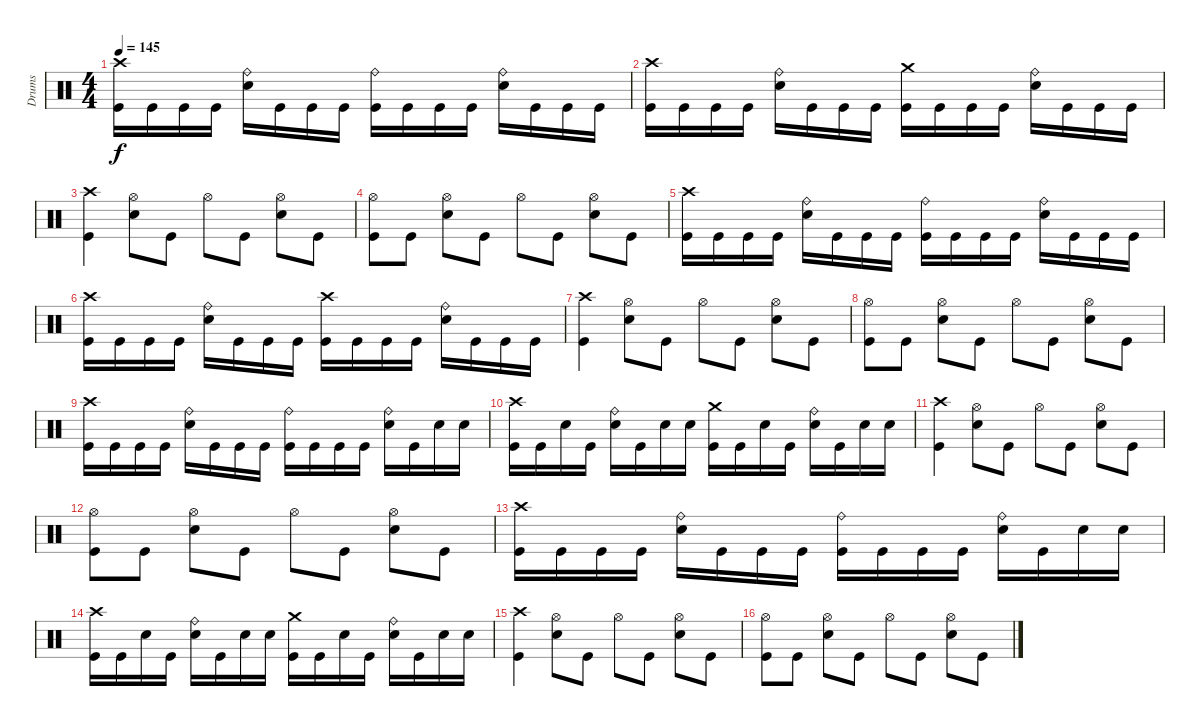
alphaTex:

\track ("Drums" "Drums") {instrument percussion}
\staff {score}
\articulation defaults
\ts (4 4)
\tempo 145
\clef neutral
\ks c
("Crash high (hit)" "Kick (hit)").16{dy f} "Kick (hit)".16 "Kick (hit)".16 "Kick (hit)".16 ("Ride (bell)" "Electric Snare (hit)").16 "Kick (hit)".16 "Kick (hit)".16 "Kick (hit)".16 ("Ride (bell)" "Kick (hit)").16 "Kick (hit)".16 "Kick (hit)".16 "Kick (hit)".16 ("Ride (bell)" "Electric Snare (hit)").16 "Kick (hit)".16 "Kick (hit)".16 "Kick (hit)".16 |
("Crash high (hit)" "Kick (hit)").16 "Kick (hit)".16 "Kick (hit)".16 "Kick (hit)".16 ("Ride (bell)" "Electric Snare (hit)").16 "Kick (hit)".16 "Kick (hit)".16 "Kick (hit)".16 ("Crash medium (hit)" "Kick (hit)").16 "Kick (hit)".16 "Kick (hit)".16 "Kick (hit)".16 ("Ride (bell)" "Electric Snare (hit)").16 "Kick (hit)".16 "Kick (hit)".16 "Kick (hit)".16 |
("Crash high (hit)" "Kick (hit)").4 ("Hi-Hat (open)" "Electric Snare (hit)").8 "Kick (hit)".8 "Hi-Hat (open)".8 "Kick (hit)".8 ("Hi-Hat (open)" "Electric Snare (hit)").8 "Kick (hit)".8 |
("Hi-Hat (open)" "Kick (hit)").8 "Kick (hit)".8 ("Hi-Hat (open)" "Electric Snare (hit)").8 "Kick (hit)".8 "Hi-Hat (open)".8 "Kick (hit)".8 ("Hi-Hat (open)" "Electric Snare (hit)").8 "Kick (hit)".8 |
("Crash high (hit)" "Kick (hit)").16 "Kick (hit)".16 "Kick (hit)".16 "Kick (hit)".16 ("Ride (bell)" "Electric Snare (hit)").16 "Kick (hit)".16 "Kick (hit)".16 "Kick (hit)".16 ("Ride (bell)" "Kick (hit)").16 "Kick (hit)".16 "Kick (hit)".16 "Kick (hit)".16 ("Ride (bell)" "Electric Snare (hit)").16 "Kick (hit)".16 "Kick (hit)".16 "Kick (hit)".16 |
("Crash high (hit)" "Kick (hit)").16 "Kick (hit)".16 "Kick (hit)".16 "Kick (hit)".16 ("Ride (bell)" "Electric Snare (hit)").16 "Kick (hit)".16 "Kick (hit)".16 "Kick (hit)".16 ("Crash high (hit)" "Kick (hit)").16 "Kick (hit)".16 "Kick (hit)".16 "Kick (hit)".16 ("Ride (bell)" "Electric Snare (hit)").16 "Kick (hit)".16 "Kick (hit)".16 "Kick (hit)".16 |
("Crash high (hit)" "Kick (hit)").4 ("Hi-Hat (open)" "Electric Snare (hit)").8 "Kick (hit)".8 "Hi-Hat (open)".8 "Kick (hit)".8 ("Hi-Hat (open)" "Electric Snare (hit)").8 "Kick (hit)".8 |
("Hi-Hat (open)" "Kick (hit)").8 "Kick (hit)".8 ("Hi-Hat (open)" "Electric Snare (hit)").8 "Kick (hit)".8 "Hi-Hat (open)".8 "Kick (hit)".8 ("Hi-Hat (open)" "Electric Snare (hit)").8 "Kick (hit)".8 |
("Crash high (hit)" "Kick (hit)").16 "Kick (hit)".16 "Kick (hit)".16 "Kick (hit)".16 ("Ride (bell)" "Electric Snare (hit)").16 "Kick (hit)".16 "Kick (hit)".16 "Kick (hit)".16 ("Ride (bell)" "Kick (hit)").16 "Kick (hit)".16 "Kick (hit)".16 "Kick (hit)".16 ("Ride (bell)" "Electric Snare (hit)").16 "Kick (hit)".16 "Electric Snare (hit)".16 "Electric Snare (hit)".16 |
("Crash high (hit)" "Kick (hit)").16 "Kick (hit)".16 "Electric Snare (hit)".16 "Kick (hit)".16 ("Ride (bell)" "Electric Snare (hit)").16 "Kick (hit)".16 "Electric Snare (hit)".16 "Electric Snare (hit)".16 ("Crash medium (hit)" "Kick (hit)").16 "Kick (hit)".16 "Electric Snare (hit)".16 "Kick (hit)".16 ("Ride (bell)" "Electric Snare (hit)").16 "Kick (hit)".16 "Electric Snare (hit)".16 "Electric Snare (hit)".16 |
("Crash high (hit)" "Kick (hit)").4 ("Hi-Hat (open)" "Electric Snare (hit)").8 "Kick (hit)".8 "Hi-Hat (open)".8 "Kick (hit)".8 ("Hi-Hat (open)" "Electric Snare (hit)").8 "Kick (hit)".8 |
("Hi-Hat (open)" "Kick (hit)").8 "Kick (hit)".8 ("Hi-Hat (open)" "Electric Snare (hit)").8 "Kick (hit)".8 "Hi-Hat (open)".8 "Kick (hit)".8 ("Hi-Hat (open)" "Electric Snare (hit)").8 "Kick (hit)".8 |
("Crash high (hit)" "Kick (hit)").16 "Kick (hit)".16 "Kick (hit)".16 "Kick (hit)".16 ("Ride (bell)" "Electric Snare (hit)").16 "Kick (hit)".16 "Kick (hit)".16 "Kick (hit)".16 ("Ride (bell)" "Kick (hit)").16 "Kick (hit)".16 "Kick (hit)".16 "Kick (hit)".16 ("Ride (bell)" "Electric Snare (hit)").16 "Kick (hit)".16 "Electric Snare (hit)".16 "Electric Snare (hit)".16 |
("Crash high (hit)" "Kick (hit)").16 "Kick (hit)".16 "Electric Snare (hit)".16 "Kick (hit)".16 ("Ride (bell)" "Electric Snare (hit)").16 "Kick (hit)".16 "Electric Snare (hit)".16 "Electric Snare (hit)".16 ("Crash medium (hit)" "Kick (hit)").16 "Kick (hit)".16 "Electric Snare (hit)".16 "Kick (hit)".16 ("Ride (bell)" "Electric Snare (hit)").16 "Kick (hit)".16 "Electric Snare (hit)".16 "Electric Snare (hit)".16 |
("Crash high (hit)" "Kick (hit)").4 ("Hi-Hat (open)" "Electric Snare (hit)").8 "Kick (hit)".8 "Hi-Hat (open)".8 "Kick (hit)".8 ("Hi-Hat (open)" "Electric Snare (hit)").8 "Kick (hit)".8 |
("Hi-Hat (open)" "Kick (hit)").8 "Kick (hit)".8 ("Hi-Hat (open)" "Electric Snare (hit)").8 "Kick (hit)".8 "Hi-Hat (open)".8 "Kick (hit)".8 ("Hi-Hat (open)" "Electric Snare (hit)").8 "Kick (hit)".8
